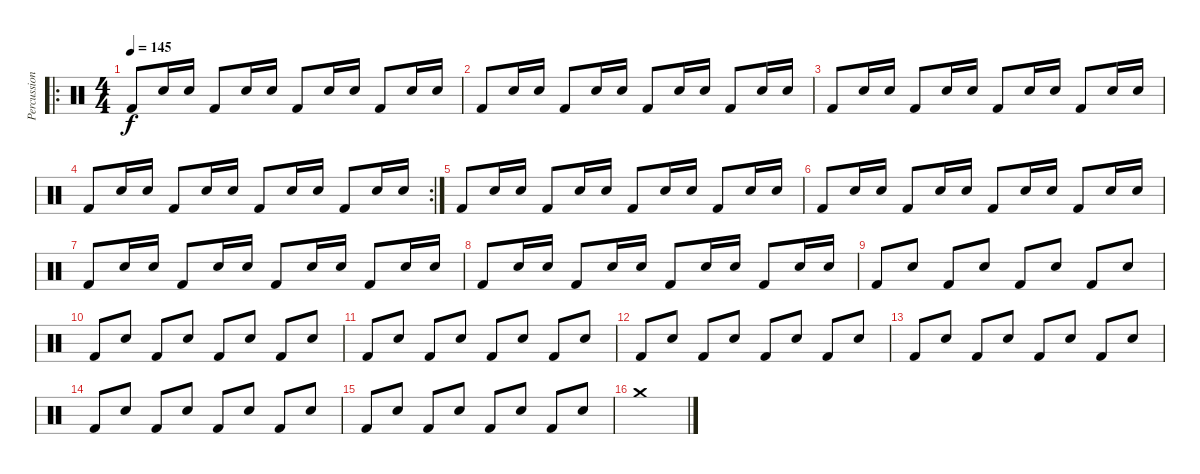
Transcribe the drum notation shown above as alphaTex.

\track ("Percussions" "Percussion") {instrument percussion}
\staff {score}
\articulation defaults
\ro
\ts (4 4)
\tempo 145
\clef neutral
\ks c "Kick (hit) 2".8{dy f} "Electric Snare (hit)".16 "Electric Snare (hit)".16 "Kick (hit) 2".8 "Electric Snare (hit)".16 "Electric Snare (hit)".16 "Kick (hit) 2".8 "Electric Snare (hit)".16 "Electric Snare (hit)".16 "Kick (hit) 2".8 "Electric Snare (hit)".16 "Electric Snare (hit)".16
|
"Kick (hit) 2".8 "Electric Snare (hit)".16 "Electric Snare (hit)".16 "Kick (hit) 2".8 "Electric Snare (hit)".16 "Electric Snare (hit)".16 "Kick (hit) 2".8 "Electric Snare (hit)".16 "Electric Snare (hit)".16 "Kick (hit) 2".8 "Electric Snare (hit)".16 "Electric Snare (hit)".16 |
"Kick (hit) 2".8 "Electric Snare (hit)".16 "Electric Snare (hit)".16 "Kick (hit) 2".8 "Electric Snare (hit)".16 "Electric Snare (hit)".16 "Kick (hit) 2".8 "Electric Snare (hit)".16 "Electric Snare (hit)".16 "Kick (hit) 2".8 "Electric Snare (hit)".16 "Electric Snare (hit)".16 |
\rc 2 "Kick (hit) 2".8 "Electric Snare (hit)".16 "Electric Snare (hit)".16 "Kick (hit) 2".8 "Electric Snare (hit)".16 "Electric Snare (hit)".16 "Kick (hit) 2".8 "Electric Snare (hit)".16 "Electric Snare (hit)".16 "Kick (hit) 2".8 "Electric Snare (hit)".16 "Electric Snare (hit)".16
|
"Kick (hit) 2".8 "Electric Snare (hit)".16 "Electric Snare (hit)".16 "Kick (hit) 2".8 "Electric Snare (hit)".16 "Electric Snare (hit)".16 "Kick (hit) 2".8 "Electric Snare (hit)".16 "Electric Snare (hit)".16 "Kick (hit) 2".8 "Electric Snare (hit)".16 "Electric Snare (hit)".16 |
"Kick (hit) 2".8 "Electric Snare (hit)".16 "Electric Snare (hit)".16 "Kick (hit) 2".8 "Electric Snare (hit)".16 "Electric Snare (hit)".16 "Kick (hit) 2".8 "Electric Snare (hit)".16 "Electric Snare (hit)".16 "Kick (hit) 2".8 "Electric Snare (hit)".16 "Electric Snare (hit)".16 |
"Kick (hit) 2".8 "Electric Snare (hit)".16 "Electric Snare (hit)".16 "Kick (hit) 2".8 "Electric Snare (hit)".16 "Electric Snare (hit)".16 "Kick (hit) 2".8 "Electric Snare (hit)".16 "Electric Snare (hit)".16 "Kick (hit) 2".8 "Electric Snare (hit)".16 "Electric Snare (hit)".16 |
"Kick (hit) 2".8 "Electric Snare (hit)".16 "Electric Snare (hit)".16 "Kick (hit) 2".8 "Electric Snare (hit)".16 "Electric Snare (hit)".16 "Kick (hit) 2".8 "Electric Snare (hit)".16 "Electric Snare (hit)".16 "Kick (hit) 2".8 "Electric Snare (hit)".16 "Electric Snare (hit)".16 |
"Kick (hit) 2".8 "Electric Snare (hit)".8 "Kick (hit) 2".8 "Electric Snare (hit)".8 "Kick (hit) 2".8 "Electric Snare (hit)".8 "Kick (hit) 2".8 "Electric Snare (hit)".8 |
"Kick (hit) 2".8 "Electric Snare (hit)".8 "Kick (hit) 2".8 "Electric Snare (hit)".8 "Kick (hit) 2".8 "Electric Snare (hit)".8 "Kick (hit) 2".8 "Electric Snare (hit)".8 |
"Kick (hit) 2".8 "Electric Snare (hit)".8 "Kick (hit) 2".8 "Electric Snare (hit)".8 "Kick (hit) 2".8 "Electric Snare (hit)".8 "Kick (hit) 2".8 "Electric Snare (hit)".8 |
"Kick (hit) 2".8 "Electric Snare (hit)".8 "Kick (hit) 2".8 "Electric Snare (hit)".8 "Kick (hit) 2".8 "Electric Snare (hit)".8 "Kick (hit) 2".8 "Electric Snare (hit)".8 |
"Kick (hit) 2".8 "Electric Snare (hit)".8 "Kick (hit) 2".8 "Electric Snare (hit)".8 "Kick (hit) 2".8 "Electric Snare (hit)".8 "Kick (hit) 2".8 "Electric Snare (hit)".8 |
"Kick (hit) 2".8 "Electric Snare (hit)".8 "Kick (hit) 2".8 "Electric Snare (hit)".8 "Kick (hit) 2".8 "Electric Snare (hit)".8 "Kick (hit) 2".8 "Electric Snare (hit)".8 |
"Kick (hit) 2".8 "Electric Snare (hit)".8 "Kick (hit) 2".8 "Electric Snare (hit)".8 "Kick (hit) 2".8 "Electric Snare (hit)".8 "Kick (hit) 2".8 "Electric Snare (hit)".8 |
"Crash medium (hit)".1
